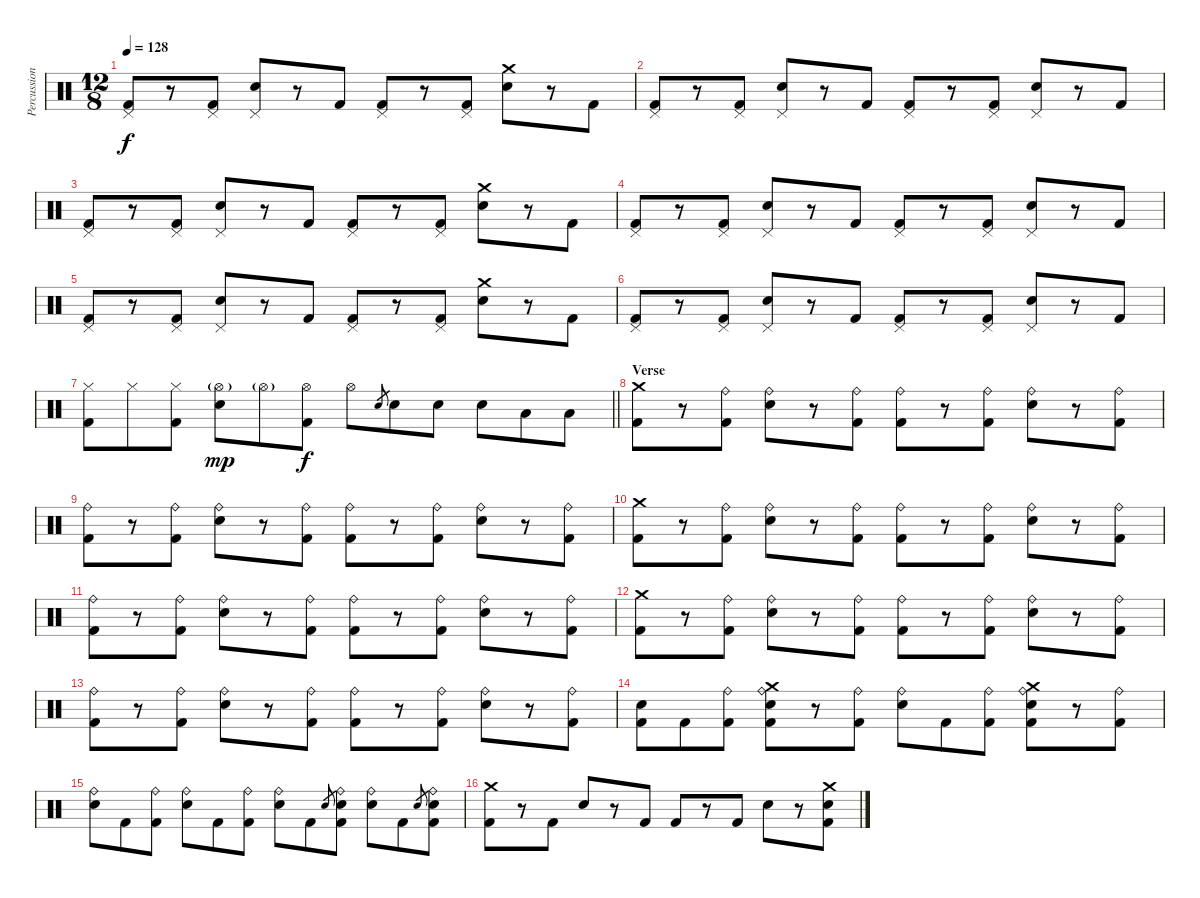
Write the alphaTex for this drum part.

\track ("Percussion" "Percussion") {instrument percussion}
\staff {score}
\articulation defaults
\ts (12 8)
\tempo 128
\clef neutral
\ks c
("Pedal Hi-Hat (hit)" "Kick (hit) 2").8{dy f} r.8 ("Pedal Hi-Hat (hit)" "Kick (hit) 2").8 ("Pedal Hi-Hat (hit)" "Snare (hit) 2").8 r.8 "Kick (hit) 2".8 ("Pedal Hi-Hat (hit)" "Kick (hit) 2").8 r.8 ("Pedal Hi-Hat (hit)" "Kick (hit) 2").8 ("Crash medium (hit)" "Snare (hit) 2").8 r.8 "Kick (hit) 2".8 |
("Pedal Hi-Hat (hit)" "Kick (hit) 2").8 r.8 ("Pedal Hi-Hat (hit)" "Kick (hit) 2").8 ("Pedal Hi-Hat (hit)" "Snare (hit) 2").8 r.8 "Kick (hit) 2".8 ("Pedal Hi-Hat (hit)" "Kick (hit) 2").8 r.8 ("Pedal Hi-Hat (hit)" "Kick (hit) 2").8 ("Pedal Hi-Hat (hit)" "Snare (hit) 2").8 r.8 "Kick (hit) 2".8 |
("Pedal Hi-Hat (hit)" "Kick (hit) 2").8 r.8 ("Pedal Hi-Hat (hit)" "Kick (hit) 2").8 ("Pedal Hi-Hat (hit)" "Snare (hit) 2").8 r.8 "Kick (hit) 2".8 ("Pedal Hi-Hat (hit)" "Kick (hit) 2").8 r.8 ("Pedal Hi-Hat (hit)" "Kick (hit) 2").8 ("Crash medium (hit)" "Snare (hit) 2").8 r.8 "Kick (hit) 2".8 |
("Pedal Hi-Hat (hit)" "Kick (hit) 2").8 r.8 ("Pedal Hi-Hat (hit)" "Kick (hit) 2").8 ("Pedal Hi-Hat (hit)" "Snare (hit) 2").8 r.8 "Kick (hit) 2".8 ("Pedal Hi-Hat (hit)" "Kick (hit) 2").8 r.8 ("Pedal Hi-Hat (hit)" "Kick (hit) 2").8 ("Pedal Hi-Hat (hit)" "Snare (hit) 2").8 r.8 "Kick (hit) 2".8 |
("Pedal Hi-Hat (hit)" "Kick (hit) 2").8 r.8 ("Pedal Hi-Hat (hit)" "Kick (hit) 2").8 ("Pedal Hi-Hat (hit)" "Snare (hit) 2").8 r.8 "Kick (hit) 2".8 ("Pedal Hi-Hat (hit)" "Kick (hit) 2").8 r.8 ("Pedal Hi-Hat (hit)" "Kick (hit) 2").8 ("Crash medium (hit)" "Snare (hit) 2").8 r.8 "Kick (hit) 2".8 |
("Pedal Hi-Hat (hit)" "Kick (hit) 2").8 r.8 ("Pedal Hi-Hat (hit)" "Kick (hit) 2").8 ("Pedal Hi-Hat (hit)" "Snare (hit) 2").8 r.8 "Kick (hit) 2".8 ("Pedal Hi-Hat (hit)" "Kick (hit) 2").8 r.8 ("Pedal Hi-Hat (hit)" "Kick (hit) 2").8 ("Pedal Hi-Hat (hit)" "Snare (hit) 2").8 r.8 "Kick (hit) 2".8 |
\barLineRight lightlight
("Hi-Hat (closed)" "Kick (hit) 2").8 "Hi-Hat (closed)".8 ("Hi-Hat (closed)" "Kick (hit) 2").8 ("Hi-Hat (open)"{g} "Snare (hit) 2").8{dy mp} "Hi-Hat (open)"{g}.8 ("Hi-Hat (open)" "Kick (hit) 2").8{dy f} "Hi-Hat (open)".8 "Snare (hit) 2".8{gr} "Snare (hit) 2".8 "Snare (hit) 2".8 "Snare (hit) 2".8 "Low Tom (hit)".8 "Low Floor Tom (hit)".8 |
\section ("" "Verse")
("Crash medium (hit)" "Kick (hit) 2").8 r.8 ("Ride (bell)" "Kick (hit) 2").8 ("Ride (bell)" "Snare (hit) 2").8 r.8 ("Ride (bell)" "Kick (hit) 2").8 ("Ride (bell)" "Kick (hit) 2").8 r.8 ("Ride (bell)" "Kick (hit) 2").8 ("Ride (bell)" "Snare (hit) 2").8 r.8 ("Ride (bell)" "Kick (hit) 2").8 |
("Ride (bell)" "Kick (hit) 2").8 r.8 ("Ride (bell)" "Kick (hit) 2").8 ("Ride (bell)" "Snare (hit) 2").8 r.8 ("Ride (bell)" "Kick (hit) 2").8 ("Ride (bell)" "Kick (hit) 2").8 r.8 ("Ride (bell)" "Kick (hit) 2").8 ("Ride (bell)" "Snare (hit) 2").8 r.8 ("Ride (bell)" "Kick (hit) 2").8 |
("Crash medium (hit)" "Kick (hit) 2").8 r.8 ("Ride (bell)" "Kick (hit) 2").8 ("Ride (bell)" "Snare (hit) 2").8 r.8 ("Ride (bell)" "Kick (hit) 2").8 ("Ride (bell)" "Kick (hit) 2").8 r.8 ("Ride (bell)" "Kick (hit) 2").8 ("Ride (bell)" "Snare (hit) 2").8 r.8 ("Ride (bell)" "Kick (hit) 2").8 |
("Ride (bell)" "Kick (hit) 2").8 r.8 ("Ride (bell)" "Kick (hit) 2").8 ("Ride (bell)" "Snare (hit) 2").8 r.8 ("Ride (bell)" "Kick (hit) 2").8 ("Ride (bell)" "Kick (hit) 2").8 r.8 ("Ride (bell)" "Kick (hit) 2").8 ("Ride (bell)" "Snare (hit) 2").8 r.8 ("Ride (bell)" "Kick (hit) 2").8 |
("Crash medium (hit)" "Kick (hit) 2").8 r.8 ("Ride (bell)" "Kick (hit) 2").8 ("Ride (bell)" "Snare (hit) 2").8 r.8 ("Ride (bell)" "Kick (hit) 2").8 ("Ride (bell)" "Kick (hit) 2").8 r.8 ("Ride (bell)" "Kick (hit) 2").8 ("Ride (bell)" "Snare (hit) 2").8 r.8 ("Ride (bell)" "Kick (hit) 2").8 |
("Ride (bell)" "Kick (hit) 2").8 r.8 ("Ride (bell)" "Kick (hit) 2").8 ("Ride (bell)" "Snare (hit) 2").8 r.8 ("Ride (bell)" "Kick (hit) 2").8 ("Ride (bell)" "Kick (hit) 2").8 r.8 ("Ride (bell)" "Kick (hit) 2").8 ("Ride (bell)" "Snare (hit) 2").8 r.8 ("Ride (bell)" "Kick (hit) 2").8 |
("Snare (hit) 2" "Kick (hit) 2").8 "Kick (hit) 2".8 ("Ride (bell)" "Kick (hit) 2").8 ("Ride (bell)" "Crash medium (hit)" "Snare (hit) 2" "Kick (hit) 2").8 r.8 ("Ride (bell)" "Kick (hit) 2").8 ("Ride (bell)" "Snare (hit) 2").8 "Kick (hit) 2".8 ("Ride (bell)" "Kick (hit) 2").8 ("Ride (bell)" "Crash medium (hit)" "Snare (hit) 2" "Kick (hit) 2").8 r.8 ("Ride (bell)" "Kick (hit) 2").8 |
("Ride (bell)" "Snare (hit) 2").8 "Kick (hit) 2".8 ("Ride (bell)" "Kick (hit) 2").8 ("Ride (bell)" "Snare (hit) 2").8 "Kick (hit) 2".8 ("Ride (bell)" "Kick (hit) 2").8 ("Ride (bell)" "Snare (hit) 2").8 "Kick (hit) 2".8 "Snare (hit) 2".8{gr} ("Ride (bell)" "Snare (hit) 2" "Kick (hit) 2").8 ("Ride (bell)" "Snare (hit) 2").8 "Kick (hit) 2".8 "Snare (hit) 2".8{gr} ("Ride (bell)" "Snare (hit) 2" "Kick (hit) 2").8 |
("Crash medium (hit)" "Kick (hit) 2").8 r.8 "Kick (hit) 2".8 "Snare (hit) 2".8 r.8 "Kick (hit) 2".8 "Kick (hit) 2".8 r.8 "Kick (hit) 2".8 "Snare (hit) 2".8 r.8 ("Crash medium (hit)" "Snare (hit) 2" "Kick (hit) 2").8
